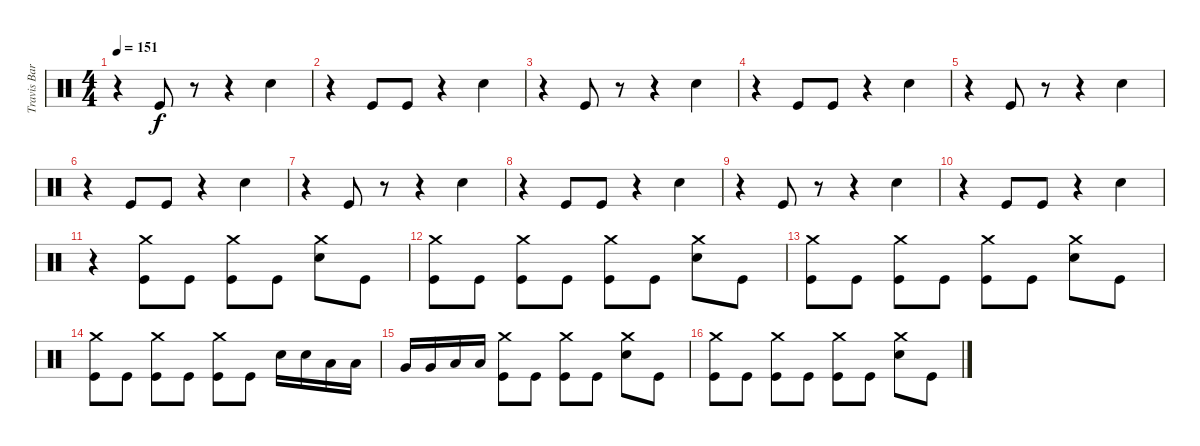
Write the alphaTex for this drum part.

\track ("Travis Barker (Drums)" "Travis Bar") {instrument percussion}
\staff {score}
\articulation defaults
\ts (4 4)
\tempo 151
\clef neutral
\ks c
r.4{dy f} "Kick (hit)".8 r.8 r.4 "Snare (hit) 2".4 |
r.4 "Kick (hit)".8 "Kick (hit)".8 r.4 "Snare (hit) 2".4 |
r.4 "Kick (hit)".8 r.8 r.4 "Snare (hit) 2".4 |
r.4 "Kick (hit)".8 "Kick (hit)".8 r.4 "Snare (hit) 2".4 |
r.4 "Kick (hit)".8 r.8 r.4 "Snare (hit) 2".4 |
r.4 "Kick (hit)".8 "Kick (hit)".8 r.4 "Snare (hit) 2".4 |
r.4 "Kick (hit)".8 r.8 r.4 "Snare (hit) 2".4 |
r.4 "Kick (hit)".8 "Kick (hit)".8 r.4 "Snare (hit) 2".4 |
r.4 "Kick (hit)".8 r.8 r.4 "Snare (hit) 2".4 |
r.4 "Kick (hit)".8 "Kick (hit)".8 r.4 "Snare (hit) 2".4 |
r.4 ("Kick (hit)" "Crash medium (hit)").8{volume 16} "Kick (hit)".8 ("Kick (hit)" "Crash medium (hit)").8 "Kick (hit)".8 ("Electric Snare (hit)" "Crash medium (hit)").8 "Kick (hit)".8 |
("Kick (hit)" "Crash medium (hit)").8 "Kick (hit)".8 ("Kick (hit)" "Crash medium (hit)").8 "Kick (hit)".8 ("Kick (hit)" "Crash medium (hit)").8 "Kick (hit)".8 ("Electric Snare (hit)" "Crash medium (hit)").8 "Kick (hit)".8 |
("Kick (hit)" "Crash medium (hit)").8 "Kick (hit)".8 ("Kick (hit)" "Crash medium (hit)").8 "Kick (hit)".8 ("Kick (hit)" "Crash medium (hit)").8 "Kick (hit)".8 ("Electric Snare (hit)" "Crash medium (hit)").8 "Kick (hit)".8 |
("Kick (hit)" "Crash medium (hit)").8 "Kick (hit)".8 ("Kick (hit)" "Crash medium (hit)").8 "Kick (hit)".8 ("Kick (hit)" "Crash medium (hit)").8 "Kick (hit)".8 "Electric Snare (hit)".16 "Electric Snare (hit)".16 "Low Tom (hit)".16 "Low Tom (hit)".16 |
"Very Low Tom (hit)".16 "Very Low Tom (hit)".16 "Low Floor Tom (hit)".16 "Low Floor Tom (hit)".16 ("Kick (hit)" "Crash medium (hit)").8 "Kick (hit)".8 ("Kick (hit)" "Crash medium (hit)").8 "Kick (hit)".8 ("Electric Snare (hit)" "Crash medium (hit)").8 "Kick (hit)".8 |
("Kick (hit)" "Crash medium (hit)").8 "Kick (hit)".8 ("Kick (hit)" "Crash medium (hit)").8 "Kick (hit)".8 ("Kick (hit)" "Crash medium (hit)").8 "Kick (hit)".8 ("Electric Snare (hit)" "Crash medium (hit)").8 "Kick (hit)".8
